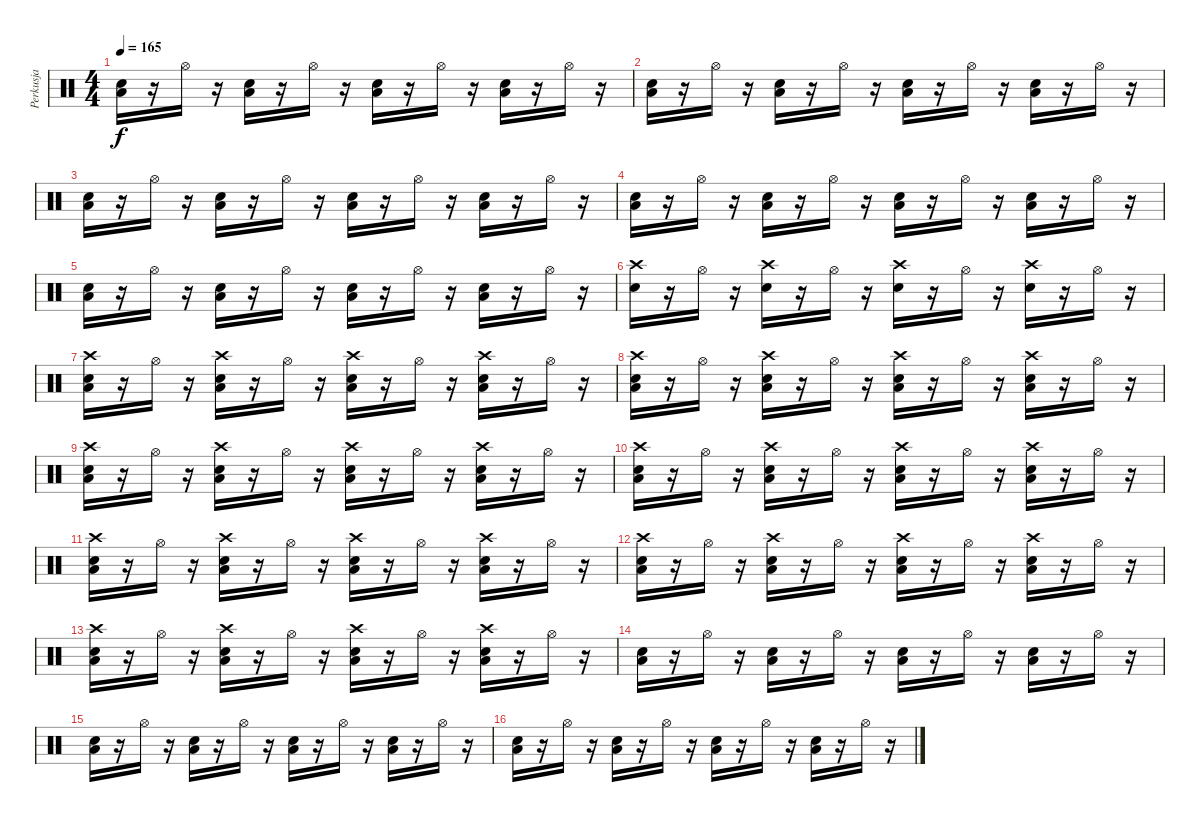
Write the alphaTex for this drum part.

\track ("Perkusja" "Perkusja") {instrument percussion}
\staff {score}
\articulation defaults
\ts (4 4)
\tempo 165
\clef neutral
\ks c
("Snare (hit) 2" "Low Tom (hit)").16{dy f} r.16 "Hi-Hat (open)".16 r.16 ("Snare (hit) 2" "Low Tom (hit)").16 r.16 "Hi-Hat (open)".16 r.16 ("Snare (hit) 2" "Low Tom (hit)").16 r.16 "Hi-Hat (open)".16 r.16 ("Snare (hit) 2" "Low Tom (hit)").16 r.16 "Hi-Hat (open)".16 r.16 |
("Snare (hit) 2" "Low Tom (hit)").16 r.16 "Hi-Hat (open)".16 r.16 ("Snare (hit) 2" "Low Tom (hit)").16 r.16 "Hi-Hat (open)".16 r.16 ("Snare (hit) 2" "Low Tom (hit)").16 r.16 "Hi-Hat (open)".16 r.16 ("Snare (hit) 2" "Low Tom (hit)").16 r.16 "Hi-Hat (open)".16 r.16 |
("Snare (hit) 2" "Low Tom (hit)").16 r.16 "Hi-Hat (open)".16 r.16 ("Snare (hit) 2" "Low Tom (hit)").16 r.16 "Hi-Hat (open)".16 r.16 ("Snare (hit) 2" "Low Tom (hit)").16 r.16 "Hi-Hat (open)".16 r.16 ("Snare (hit) 2" "Low Tom (hit)").16 r.16 "Hi-Hat (open)".16 r.16 |
("Snare (hit) 2" "Low Tom (hit)").16 r.16 "Hi-Hat (open)".16 r.16 ("Snare (hit) 2" "Low Tom (hit)").16 r.16 "Hi-Hat (open)".16 r.16 ("Snare (hit) 2" "Low Tom (hit)").16 r.16 "Hi-Hat (open)".16 r.16 ("Snare (hit) 2" "Low Tom (hit)").16 r.16 "Hi-Hat (open)".16 r.16 |
("Snare (hit) 2" "Low Tom (hit)").16 r.16 "Hi-Hat (open)".16 r.16 ("Snare (hit) 2" "Low Tom (hit)").16 r.16 "Hi-Hat (open)".16 r.16 ("Snare (hit) 2" "Low Tom (hit)").16 r.16 "Hi-Hat (open)".16 r.16 ("Snare (hit) 2" "Low Tom (hit)").16 r.16 "Hi-Hat (open)".16 r.16 |
("Snare (hit) 2" "Crash high (hit)").16 r.16 "Hi-Hat (open)".16 r.16 ("Snare (hit) 2" "Crash high (hit)").16 r.16 "Hi-Hat (open)".16 r.16 ("Snare (hit) 2" "Crash high (hit)").16 r.16 "Hi-Hat (open)".16 r.16 ("Snare (hit) 2" "Crash high (hit)").16 r.16 "Hi-Hat (open)".16 r.16 |
("Snare (hit) 2" "Low Tom (hit)" "Crash high (hit)").16 r.16 "Hi-Hat (open)".16 r.16 ("Snare (hit) 2" "Low Tom (hit)" "Crash high (hit)").16 r.16 "Hi-Hat (open)".16 r.16 ("Snare (hit) 2" "Low Tom (hit)" "Crash high (hit)").16 r.16 "Hi-Hat (open)".16 r.16 ("Snare (hit) 2" "Low Tom (hit)" "Crash high (hit)").16 r.16 "Hi-Hat (open)".16 r.16 |
("Snare (hit) 2" "Low Tom (hit)" "Crash high (hit)").16 r.16 "Hi-Hat (open)".16 r.16 ("Snare (hit) 2" "Low Tom (hit)" "Crash high (hit)").16 r.16 "Hi-Hat (open)".16 r.16 ("Snare (hit) 2" "Low Tom (hit)" "Crash high (hit)").16 r.16 "Hi-Hat (open)".16 r.16 ("Snare (hit) 2" "Low Tom (hit)" "Crash high (hit)").16 r.16 "Hi-Hat (open)".16 r.16 |
("Snare (hit) 2" "Low Tom (hit)" "Crash high (hit)").16 r.16 "Hi-Hat (open)".16 r.16 ("Snare (hit) 2" "Low Tom (hit)" "Crash high (hit)").16 r.16 "Hi-Hat (open)".16 r.16 ("Snare (hit) 2" "Low Tom (hit)" "Crash high (hit)").16 r.16 "Hi-Hat (open)".16 r.16 ("Snare (hit) 2" "Low Tom (hit)" "Crash high (hit)").16 r.16 "Hi-Hat (open)".16 r.16 |
("Snare (hit) 2" "Low Tom (hit)" "Crash high (hit)").16 r.16 "Hi-Hat (open)".16 r.16 ("Snare (hit) 2" "Low Tom (hit)" "Crash high (hit)").16 r.16 "Hi-Hat (open)".16 r.16 ("Snare (hit) 2" "Low Tom (hit)" "Crash high (hit)").16 r.16 "Hi-Hat (open)".16 r.16 ("Snare (hit) 2" "Low Tom (hit)" "Crash high (hit)").16 r.16 "Hi-Hat (open)".16 r.16 |
("Snare (hit) 2" "Low Tom (hit)" "Crash high (hit)").16 r.16 "Hi-Hat (open)".16 r.16 ("Snare (hit) 2" "Low Tom (hit)" "Crash high (hit)").16 r.16 "Hi-Hat (open)".16 r.16 ("Snare (hit) 2" "Low Tom (hit)" "Crash high (hit)").16 r.16 "Hi-Hat (open)".16 r.16 ("Snare (hit) 2" "Low Tom (hit)" "Crash high (hit)").16 r.16 "Hi-Hat (open)".16 r.16 |
("Snare (hit) 2" "Low Tom (hit)" "Crash high (hit)").16 r.16 "Hi-Hat (open)".16 r.16 ("Snare (hit) 2" "Low Tom (hit)" "Crash high (hit)").16 r.16 "Hi-Hat (open)".16 r.16 ("Snare (hit) 2" "Low Tom (hit)" "Crash high (hit)").16 r.16 "Hi-Hat (open)".16 r.16 ("Snare (hit) 2" "Low Tom (hit)" "Crash high (hit)").16 r.16 "Hi-Hat (open)".16 r.16 |
("Snare (hit) 2" "Low Tom (hit)" "Crash high (hit)").16 r.16 "Hi-Hat (open)".16 r.16 ("Snare (hit) 2" "Low Tom (hit)" "Crash high (hit)").16 r.16 "Hi-Hat (open)".16 r.16 ("Snare (hit) 2" "Low Tom (hit)" "Crash high (hit)").16 r.16 "Hi-Hat (open)".16 r.16 ("Snare (hit) 2" "Low Tom (hit)" "Crash high (hit)").16 r.16 "Hi-Hat (open)".16 r.16 |
("Snare (hit) 2" "Low Tom (hit)").16 r.16 "Hi-Hat (open)".16 r.16 ("Snare (hit) 2" "Low Tom (hit)").16 r.16 "Hi-Hat (open)".16 r.16 ("Snare (hit) 2" "Low Tom (hit)").16 r.16 "Hi-Hat (open)".16 r.16 ("Snare (hit) 2" "Low Tom (hit)").16 r.16 "Hi-Hat (open)".16 r.16 |
("Snare (hit) 2" "Low Tom (hit)").16 r.16 "Hi-Hat (open)".16 r.16 ("Snare (hit) 2" "Low Tom (hit)").16 r.16 "Hi-Hat (open)".16 r.16 ("Snare (hit) 2" "Low Tom (hit)").16 r.16 "Hi-Hat (open)".16 r.16 ("Snare (hit) 2" "Low Tom (hit)").16 r.16 "Hi-Hat (open)".16 r.16 |
("Snare (hit) 2" "Low Tom (hit)").16 r.16 "Hi-Hat (open)".16 r.16 ("Snare (hit) 2" "Low Tom (hit)").16 r.16 "Hi-Hat (open)".16 r.16 ("Snare (hit) 2" "Low Tom (hit)").16 r.16 "Hi-Hat (open)".16 r.16 ("Snare (hit) 2" "Low Tom (hit)").16 r.16 "Hi-Hat (open)".16 r.16
